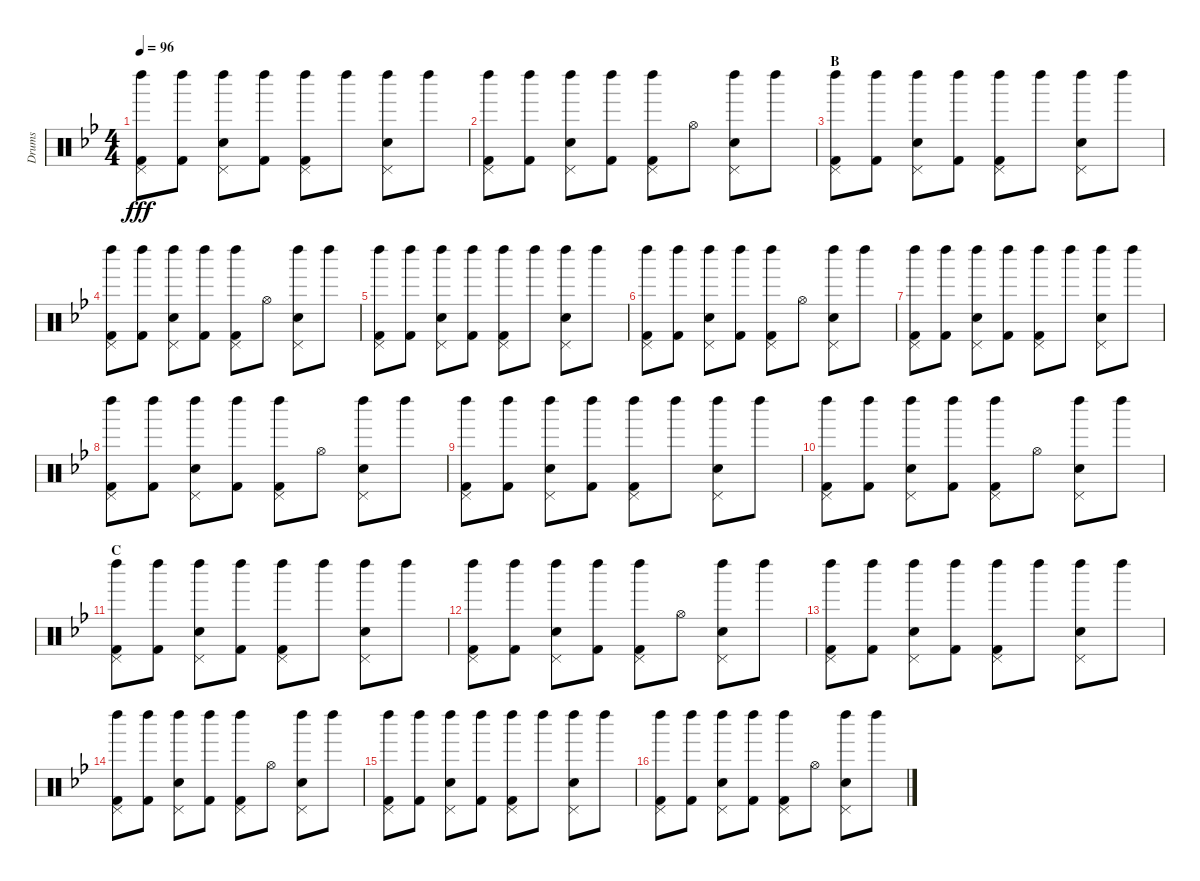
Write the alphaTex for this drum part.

\track ("Drums" "Drums") {instrument percussion}
\staff {score}
\articulation defaults
\ts (4 4)
\tempo 96
\clef neutral
\ks bb
("Left Maraca (hit)" "Pedal Hi-Hat (hit)" "Kick (hit) 2").8{dy fff} ("Left Maraca (hit)" "Kick (hit) 2").8 ("Left Maraca (hit)" "Pedal Hi-Hat (hit)" "Snare (hit) 2").8 ("Left Maraca (hit)" "Kick (hit) 2").8 ("Left Maraca (hit)" "Pedal Hi-Hat (hit)" "Kick (hit) 2").8 "Left Maraca (hit)".8 ("Left Maraca (hit)" "Pedal Hi-Hat (hit)" "Snare (hit) 2").8 "Left Maraca (hit)".8 |
("Left Maraca (hit)" "Pedal Hi-Hat (hit)" "Kick (hit) 2").8 ("Left Maraca (hit)" "Kick (hit) 2").8 ("Left Maraca (hit)" "Pedal Hi-Hat (hit)" "Snare (hit) 2").8 ("Left Maraca (hit)" "Kick (hit) 2").8 ("Left Maraca (hit)" "Pedal Hi-Hat (hit)" "Kick (hit) 2").8 "Hi-Hat (open)".8 ("Left Maraca (hit)" "Pedal Hi-Hat (hit)" "Snare (hit) 2").8 "Left Maraca (hit)".8 |
\section ("" "B")
("Left Maraca (hit)" "Pedal Hi-Hat (hit)" "Kick (hit) 2").8 ("Left Maraca (hit)" "Kick (hit) 2").8 ("Left Maraca (hit)" "Pedal Hi-Hat (hit)" "Snare (hit) 2").8 ("Left Maraca (hit)" "Kick (hit) 2").8 ("Left Maraca (hit)" "Pedal Hi-Hat (hit)" "Kick (hit) 2").8 "Left Maraca (hit)".8 ("Left Maraca (hit)" "Pedal Hi-Hat (hit)" "Snare (hit) 2").8 "Left Maraca (hit)".8 |
("Left Maraca (hit)" "Pedal Hi-Hat (hit)" "Kick (hit) 2").8 ("Left Maraca (hit)" "Kick (hit) 2").8 ("Left Maraca (hit)" "Pedal Hi-Hat (hit)" "Snare (hit) 2").8 ("Left Maraca (hit)" "Kick (hit) 2").8 ("Left Maraca (hit)" "Pedal Hi-Hat (hit)" "Kick (hit) 2").8 "Hi-Hat (open)".8 ("Left Maraca (hit)" "Pedal Hi-Hat (hit)" "Snare (hit) 2").8 "Left Maraca (hit)".8 |
("Left Maraca (hit)" "Pedal Hi-Hat (hit)" "Kick (hit) 2").8 ("Left Maraca (hit)" "Kick (hit) 2").8 ("Left Maraca (hit)" "Pedal Hi-Hat (hit)" "Snare (hit) 2").8 ("Left Maraca (hit)" "Kick (hit) 2").8 ("Left Maraca (hit)" "Pedal Hi-Hat (hit)" "Kick (hit) 2").8 "Left Maraca (hit)".8 ("Left Maraca (hit)" "Pedal Hi-Hat (hit)" "Snare (hit) 2").8 "Left Maraca (hit)".8 |
("Left Maraca (hit)" "Pedal Hi-Hat (hit)" "Kick (hit) 2").8 ("Left Maraca (hit)" "Kick (hit) 2").8 ("Left Maraca (hit)" "Pedal Hi-Hat (hit)" "Snare (hit) 2").8 ("Left Maraca (hit)" "Kick (hit) 2").8 ("Left Maraca (hit)" "Pedal Hi-Hat (hit)" "Kick (hit) 2").8 "Hi-Hat (open)".8 ("Left Maraca (hit)" "Pedal Hi-Hat (hit)" "Snare (hit) 2").8 "Left Maraca (hit)".8 |
("Left Maraca (hit)" "Pedal Hi-Hat (hit)" "Kick (hit) 2").8 ("Left Maraca (hit)" "Kick (hit) 2").8 ("Left Maraca (hit)" "Pedal Hi-Hat (hit)" "Snare (hit) 2").8 ("Left Maraca (hit)" "Kick (hit) 2").8 ("Left Maraca (hit)" "Pedal Hi-Hat (hit)" "Kick (hit) 2").8 "Left Maraca (hit)".8 ("Left Maraca (hit)" "Pedal Hi-Hat (hit)" "Snare (hit) 2").8 "Left Maraca (hit)".8 |
("Left Maraca (hit)" "Pedal Hi-Hat (hit)" "Kick (hit) 2").8 ("Left Maraca (hit)" "Kick (hit) 2").8 ("Left Maraca (hit)" "Pedal Hi-Hat (hit)" "Snare (hit) 2").8 ("Left Maraca (hit)" "Kick (hit) 2").8 ("Left Maraca (hit)" "Pedal Hi-Hat (hit)" "Kick (hit) 2").8 "Hi-Hat (open)".8 ("Left Maraca (hit)" "Pedal Hi-Hat (hit)" "Snare (hit) 2").8 "Left Maraca (hit)".8 |
("Left Maraca (hit)" "Pedal Hi-Hat (hit)" "Kick (hit) 2").8 ("Left Maraca (hit)" "Kick (hit) 2").8 ("Left Maraca (hit)" "Pedal Hi-Hat (hit)" "Snare (hit) 2").8 ("Left Maraca (hit)" "Kick (hit) 2").8 ("Left Maraca (hit)" "Pedal Hi-Hat (hit)" "Kick (hit) 2").8 "Left Maraca (hit)".8 ("Left Maraca (hit)" "Pedal Hi-Hat (hit)" "Snare (hit) 2").8 "Left Maraca (hit)".8 |
("Left Maraca (hit)" "Pedal Hi-Hat (hit)" "Kick (hit) 2").8 ("Left Maraca (hit)" "Kick (hit) 2").8 ("Left Maraca (hit)" "Pedal Hi-Hat (hit)" "Snare (hit) 2").8 ("Left Maraca (hit)" "Kick (hit) 2").8 ("Left Maraca (hit)" "Pedal Hi-Hat (hit)" "Kick (hit) 2").8 "Hi-Hat (open)".8 ("Left Maraca (hit)" "Pedal Hi-Hat (hit)" "Snare (hit) 2").8 "Left Maraca (hit)".8 |
\section ("" "C")
("Left Maraca (hit)" "Pedal Hi-Hat (hit)" "Kick (hit) 2").8 ("Left Maraca (hit)" "Kick (hit) 2").8 ("Left Maraca (hit)" "Pedal Hi-Hat (hit)" "Snare (hit) 2").8 ("Left Maraca (hit)" "Kick (hit) 2").8 ("Left Maraca (hit)" "Pedal Hi-Hat (hit)" "Kick (hit) 2").8 "Left Maraca (hit)".8 ("Left Maraca (hit)" "Pedal Hi-Hat (hit)" "Snare (hit) 2").8 "Left Maraca (hit)".8 |
("Left Maraca (hit)" "Pedal Hi-Hat (hit)" "Kick (hit) 2").8 ("Left Maraca (hit)" "Kick (hit) 2").8 ("Left Maraca (hit)" "Pedal Hi-Hat (hit)" "Snare (hit) 2").8 ("Left Maraca (hit)" "Kick (hit) 2").8 ("Left Maraca (hit)" "Pedal Hi-Hat (hit)" "Kick (hit) 2").8 "Hi-Hat (open)".8 ("Left Maraca (hit)" "Pedal Hi-Hat (hit)" "Snare (hit) 2").8 "Left Maraca (hit)".8 |
("Left Maraca (hit)" "Pedal Hi-Hat (hit)" "Kick (hit) 2").8 ("Left Maraca (hit)" "Kick (hit) 2").8 ("Left Maraca (hit)" "Pedal Hi-Hat (hit)" "Snare (hit) 2").8 ("Left Maraca (hit)" "Kick (hit) 2").8 ("Left Maraca (hit)" "Pedal Hi-Hat (hit)" "Kick (hit) 2").8 "Left Maraca (hit)".8 ("Left Maraca (hit)" "Pedal Hi-Hat (hit)" "Snare (hit) 2").8 "Left Maraca (hit)".8 |
("Left Maraca (hit)" "Pedal Hi-Hat (hit)" "Kick (hit) 2").8 ("Left Maraca (hit)" "Kick (hit) 2").8 ("Left Maraca (hit)" "Pedal Hi-Hat (hit)" "Snare (hit) 2").8 ("Left Maraca (hit)" "Kick (hit) 2").8 ("Left Maraca (hit)" "Pedal Hi-Hat (hit)" "Kick (hit) 2").8 "Hi-Hat (open)".8 ("Left Maraca (hit)" "Pedal Hi-Hat (hit)" "Snare (hit) 2").8 "Left Maraca (hit)".8 |
("Left Maraca (hit)" "Pedal Hi-Hat (hit)" "Kick (hit) 2").8 ("Left Maraca (hit)" "Kick (hit) 2").8 ("Left Maraca (hit)" "Pedal Hi-Hat (hit)" "Snare (hit) 2").8 ("Left Maraca (hit)" "Kick (hit) 2").8 ("Left Maraca (hit)" "Pedal Hi-Hat (hit)" "Kick (hit) 2").8 "Left Maraca (hit)".8 ("Left Maraca (hit)" "Pedal Hi-Hat (hit)" "Snare (hit) 2").8 "Left Maraca (hit)".8 |
("Left Maraca (hit)" "Pedal Hi-Hat (hit)" "Kick (hit) 2").8 ("Left Maraca (hit)" "Kick (hit) 2").8 ("Left Maraca (hit)" "Pedal Hi-Hat (hit)" "Snare (hit) 2").8 ("Left Maraca (hit)" "Kick (hit) 2").8 ("Left Maraca (hit)" "Pedal Hi-Hat (hit)" "Kick (hit) 2").8 "Hi-Hat (open)".8 ("Left Maraca (hit)" "Pedal Hi-Hat (hit)" "Snare (hit) 2").8 "Left Maraca (hit)".8
